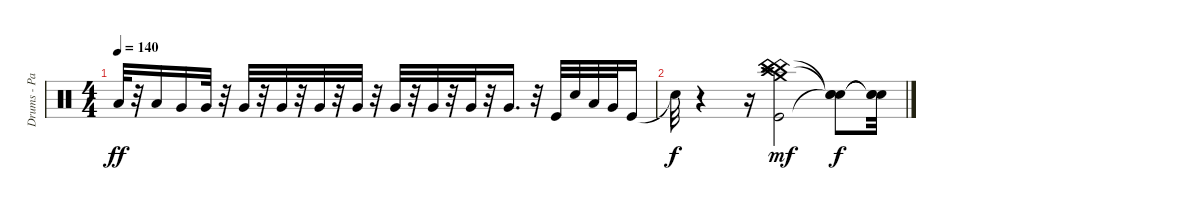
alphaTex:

\track ("Drums - Paice" "Drums - Pa") {instrument percussion}
\staff {score}
\articulation defaults
\ts (4 4)
\tempo 140
\clef neutral
\ks c "Low Tom (hit)".32{dy ff}
r.32 "Low Tom (hit)".16 "Very Low Tom (hit)".16 "Very Low Tom (hit)".32 r.32 "Very Low Tom (hit)".32 r.32 "Very Low Tom (hit)".32 r.32 "Very Low Tom (hit)".32 r.32 "Very Low Tom (hit)".32 r.32 "Very Low Tom (hit)".32 r.32 "Very Low Tom (hit)".32 r.32 "Very Low Tom (hit)".32 r.32 "Very Low Tom (hit)".16{d} r.32 "Kick (hit)".32 "Snare (hit) 2".32 "Low Tom (hit)".32 "Very Low Tom (hit)".32 "Kick (hit)".16 |
"Snare (hit)"{t}.32{dy f} r.4 r.16 ("Kick (hit)" "China (hit)" "Crash high (hit)" "Crash medium (hit)" "China (hit)" "China (hit)").2{dy mf} ("Snare (hit)"{t} "Snare (hit)"{t} "Snare (hit)"{t}).8{dy f} ("Snare (hit)"{t} "Snare (hit)"{t} "Snare (hit)"{t}).32
